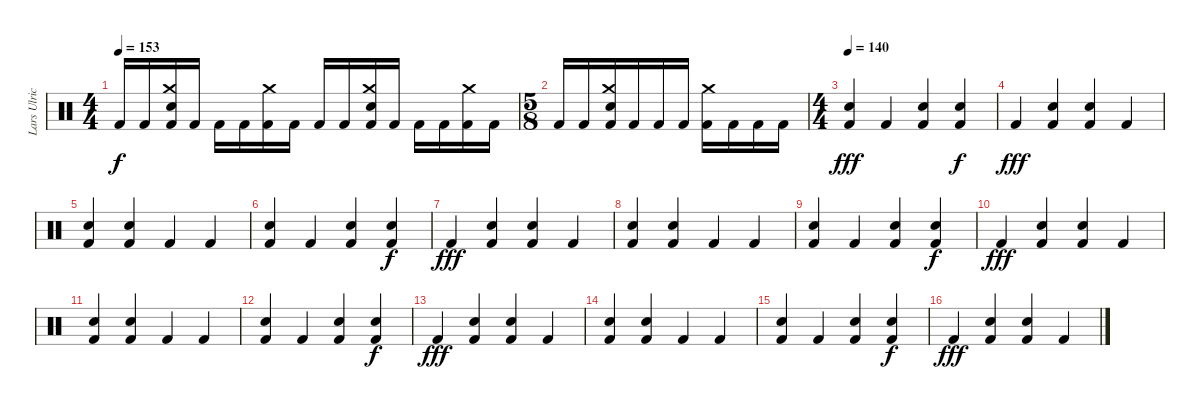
\track ("Lars Ulrich (Drums)" "Lars Ulric") {instrument percussion}
\staff {score}
\articulation defaults
\ts (4 4)
\tempo 153
\clef neutral
\ks c "Kick (hit) 2".16{dy f} "Kick (hit) 2".16
("Crash medium (hit)" "Electric Snare (hit)" "Kick (hit) 2").16 "Kick (hit) 2".16 "Kick (hit) 2".16 "Kick (hit) 2".16 ("Crash medium (hit)" "Kick (hit) 2").16 "Kick (hit) 2".16 "Kick (hit) 2".16 "Kick (hit) 2".16 ("Crash medium (hit)" "Electric Snare (hit)" "Kick (hit) 2").16 "Kick (hit) 2".16 "Kick (hit) 2".16 "Kick (hit) 2".16 ("Crash medium (hit)" "Kick (hit) 2").16 "Kick (hit) 2".16 |
\ts (5 8)
"Kick (hit) 2".16 "Kick (hit) 2".16 ("Crash medium (hit)" "Electric Snare (hit)" "Kick (hit) 2").16 "Kick (hit) 2".16 "Kick (hit) 2".16 "Kick (hit) 2".16 ("Crash medium (hit)" "Kick (hit) 2").16 "Kick (hit) 2".16 "Kick (hit) 2".16 "Kick (hit) 2".16 |
\ts (4 4)
\tempo 140
("Electric Snare (hit)" "Kick (hit) 2").4{dy fff} "Kick (hit) 2".4 ("Electric Snare (hit)" "Kick (hit) 2").4 ("Electric Snare (hit)" "Kick (hit) 2").4{dy f} |
"Kick (hit) 2".4{dy fff} ("Electric Snare (hit)" "Kick (hit) 2").4 ("Electric Snare (hit)" "Kick (hit) 2").4 "Kick (hit) 2".4 |
("Electric Snare (hit)" "Kick (hit) 2").4 ("Electric Snare (hit)" "Kick (hit) 2").4 "Kick (hit) 2".4 "Kick (hit) 2".4 |
("Electric Snare (hit)" "Kick (hit) 2").4 "Kick (hit) 2".4 ("Electric Snare (hit)" "Kick (hit) 2").4 ("Electric Snare (hit)" "Kick (hit) 2").4{dy f} |
"Kick (hit) 2".4{dy fff} ("Electric Snare (hit)" "Kick (hit) 2").4 ("Electric Snare (hit)" "Kick (hit) 2").4 "Kick (hit) 2".4 |
("Electric Snare (hit)" "Kick (hit) 2").4 ("Electric Snare (hit)" "Kick (hit) 2").4 "Kick (hit) 2".4 "Kick (hit) 2".4 |
("Electric Snare (hit)" "Kick (hit) 2").4 "Kick (hit) 2".4 ("Electric Snare (hit)" "Kick (hit) 2").4 ("Electric Snare (hit)" "Kick (hit) 2").4{dy f} |
"Kick (hit) 2".4{dy fff} ("Electric Snare (hit)" "Kick (hit) 2").4 ("Electric Snare (hit)" "Kick (hit) 2").4 "Kick (hit) 2".4 |
("Electric Snare (hit)" "Kick (hit) 2").4 ("Electric Snare (hit)" "Kick (hit) 2").4 "Kick (hit) 2".4 "Kick (hit) 2".4 |
("Electric Snare (hit)" "Kick (hit) 2").4 "Kick (hit) 2".4 ("Electric Snare (hit)" "Kick (hit) 2").4 ("Electric Snare (hit)" "Kick (hit) 2").4{dy f} |
"Kick (hit) 2".4{dy fff} ("Electric Snare (hit)" "Kick (hit) 2").4 ("Electric Snare (hit)" "Kick (hit) 2").4 "Kick (hit) 2".4 |
("Electric Snare (hit)" "Kick (hit) 2").4 ("Electric Snare (hit)" "Kick (hit) 2").4 "Kick (hit) 2".4 "Kick (hit) 2".4 |
("Electric Snare (hit)" "Kick (hit) 2").4 "Kick (hit) 2".4 ("Electric Snare (hit)" "Kick (hit) 2").4 ("Electric Snare (hit)" "Kick (hit) 2").4{dy f} |
"Kick (hit) 2".4{dy fff} ("Electric Snare (hit)" "Kick (hit) 2").4 ("Electric Snare (hit)" "Kick (hit) 2").4 "Kick (hit) 2".4
